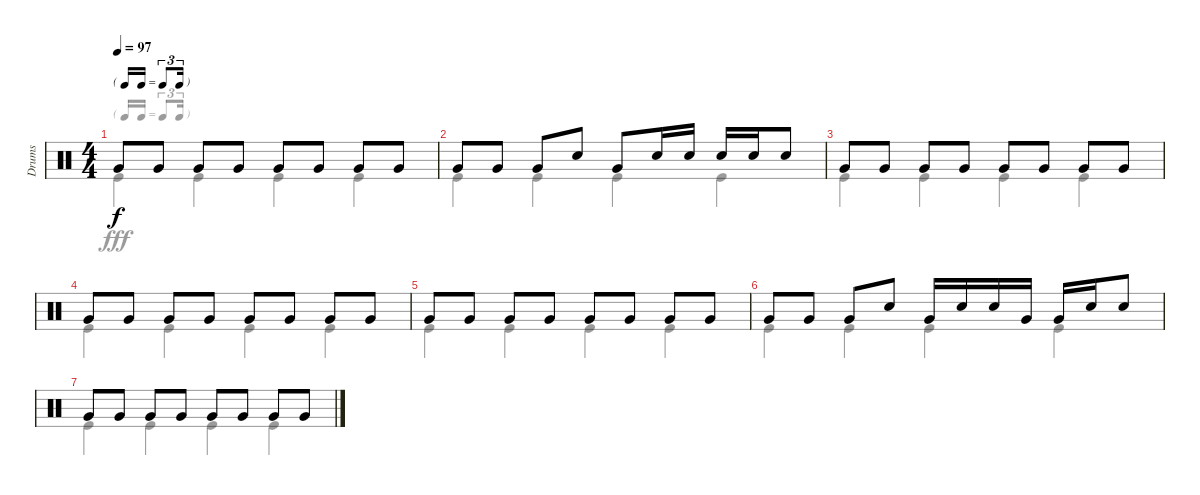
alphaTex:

\track ("Drums" "Drums") {instrument percussion}
\staff {score}
\articulation defaults
\voice
\ts (4 4)
\tf triplet16th
\tempo 97
\clef neutral
\ks c "Very Low Tom (hit)".8{dy f} "Very Low Tom (hit)".8 "Very Low Tom (hit)".8 "Very Low Tom (hit)".8 "Very Low Tom (hit)".8 "Very Low Tom (hit)".8 "Very Low Tom (hit)".8 "Very Low Tom (hit)".8
|
"Very Low Tom (hit)".8 "Very Low Tom (hit)".8 "Very Low Tom (hit)".8 "Snare (hit) 2".8 "Very Low Tom (hit)".8 "Snare (hit) 2".16 "Snare (hit) 2".16 "Snare (hit) 2".16 "Snare (hit) 2".16 "Snare (hit) 2".8 |
"Very Low Tom (hit)".8 "Very Low Tom (hit)".8 "Very Low Tom (hit)".8 "Very Low Tom (hit)".8 "Very Low Tom (hit)".8 "Very Low Tom (hit)".8 "Very Low Tom (hit)".8 "Very Low Tom (hit)".8 |
"Very Low Tom (hit)".8 "Very Low Tom (hit)".8 "Very Low Tom (hit)".8 "Very Low Tom (hit)".8 "Very Low Tom (hit)".8 "Very Low Tom (hit)".8 "Very Low Tom (hit)".8 "Very Low Tom (hit)".8 |
"Very Low Tom (hit)".8 "Very Low Tom (hit)".8 "Very Low Tom (hit)".8 "Very Low Tom (hit)".8 "Very Low Tom (hit)".8 "Very Low Tom (hit)".8 "Very Low Tom (hit)".8 "Very Low Tom (hit)".8 |
"Very Low Tom (hit)".8 "Very Low Tom (hit)".8 "Very Low Tom (hit)".8 "Snare (hit) 2".8 "Very Low Tom (hit)".16 "Snare (hit) 2".16 "Snare (hit) 2".16 "Very Low Tom (hit)".16 "Very Low Tom (hit)".16 "Snare (hit) 2".16 "Snare (hit) 2".8 |
"Very Low Tom (hit)".8 "Very Low Tom (hit)".8 "Very Low Tom (hit)".8 "Very Low Tom (hit)".8 "Very Low Tom (hit)".8 "Very Low Tom (hit)".8 "Very Low Tom (hit)".8 "Very Low Tom (hit)".8
\voice
\clef neutral
\ottava regular
\simile none
\ks c "Kick (hit)".4{dy fff} "Kick (hit)".4 "Kick (hit)".4 "Kick (hit)".4
|
"Kick (hit)".4 "Kick (hit)".4 "Kick (hit)".4 "Kick (hit)".4 |
"Kick (hit)".4 "Kick (hit)".4 "Kick (hit)".4 "Kick (hit)".4 |
"Kick (hit)".4 "Kick (hit)".4 "Kick (hit)".4 "Kick (hit)".4 |
"Kick (hit)".4 "Kick (hit)".4 "Kick (hit)".4 "Kick (hit)".4 |
"Kick (hit)".4 "Kick (hit)".4 "Kick (hit)".4 "Kick (hit)".4 |
"Kick (hit)".4 "Kick (hit)".4 "Kick (hit)".4 "Kick (hit)".4
